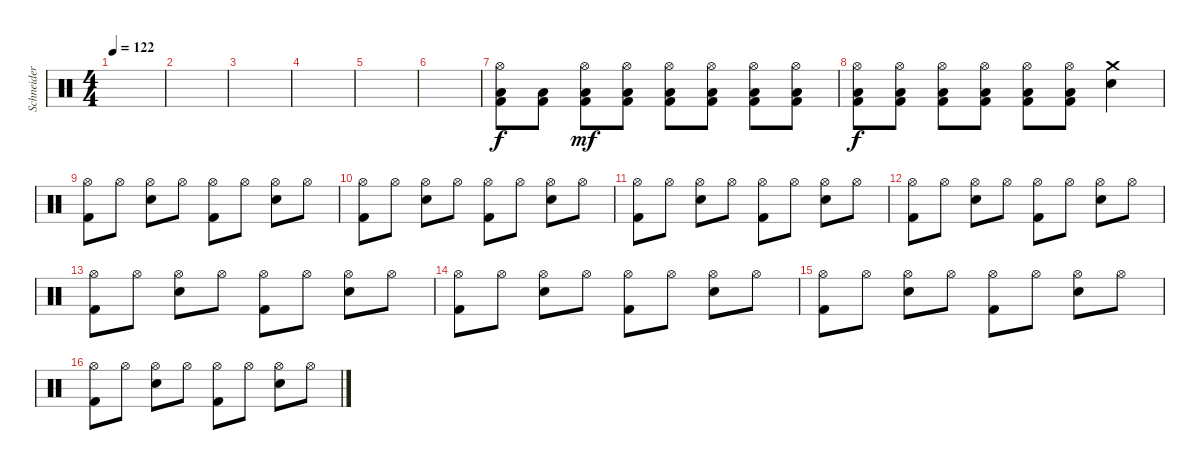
\track ("Schneider" "Schneider") {instrument percussion}
\staff {score}
\articulation defaults
\ts (4 4)
\tempo 122
\clef neutral
\ks c
|
|
|
|
|
|
("Hi-Hat (open)" "Low Floor Tom (hit)" "Kick (hit) 2").8{volume 13} ("Low Floor Tom (hit)" "Kick (hit) 2").8 ("Hi-Hat (open)" "Low Floor Tom (hit)" "Kick (hit) 2").8{dy mf} ("Hi-Hat (open)" "Low Floor Tom (hit)" "Kick (hit) 2").8 ("Hi-Hat (open)" "Low Floor Tom (hit)" "Kick (hit) 2").8 ("Hi-Hat (open)" "Low Floor Tom (hit)" "Kick (hit) 2").8 ("Hi-Hat (open)" "Low Floor Tom (hit)" "Kick (hit) 2").8 ("Hi-Hat (open)" "Low Floor Tom (hit)" "Kick (hit) 2").8 |
("Hi-Hat (open)" "Low Floor Tom (hit)" "Kick (hit) 2").8{dy f} ("Hi-Hat (open)" "Low Floor Tom (hit)" "Kick (hit) 2").8 ("Hi-Hat (open)" "Low Floor Tom (hit)" "Kick (hit) 2").8 ("Hi-Hat (open)" "Low Floor Tom (hit)" "Kick (hit) 2").8 ("Hi-Hat (open)" "Low Floor Tom (hit)" "Kick (hit) 2").8 ("Hi-Hat (open)" "Low Floor Tom (hit)" "Kick (hit) 2").8 ("Crash medium (hit)" "Snare (hit) 2").4 |
("Hi-Hat (open)" "Kick (hit) 2").8 "Hi-Hat (open)".8 ("Hi-Hat (open)" "Snare (hit) 2").8 "Hi-Hat (open)".8 ("Hi-Hat (open)" "Kick (hit) 2").8 "Hi-Hat (open)".8 ("Hi-Hat (open)" "Snare (hit) 2").8 "Hi-Hat (open)".8 |
("Hi-Hat (open)" "Kick (hit) 2").8 "Hi-Hat (open)".8 ("Hi-Hat (open)" "Snare (hit) 2").8 "Hi-Hat (open)".8 ("Hi-Hat (open)" "Kick (hit) 2").8 "Hi-Hat (open)".8 ("Hi-Hat (open)" "Snare (hit) 2").8 "Hi-Hat (open)".8 |
("Hi-Hat (open)" "Kick (hit) 2").8 "Hi-Hat (open)".8 ("Hi-Hat (open)" "Snare (hit) 2").8 "Hi-Hat (open)".8 ("Hi-Hat (open)" "Kick (hit) 2").8 "Hi-Hat (open)".8 ("Hi-Hat (open)" "Snare (hit) 2").8 "Hi-Hat (open)".8 |
("Hi-Hat (open)" "Kick (hit) 2").8 "Hi-Hat (open)".8 ("Hi-Hat (open)" "Snare (hit) 2").8 "Hi-Hat (open)".8 ("Hi-Hat (open)" "Kick (hit) 2").8 "Hi-Hat (open)".8 ("Hi-Hat (open)" "Snare (hit) 2").8 "Hi-Hat (open)".8 |
("Hi-Hat (open)" "Kick (hit) 2").8 "Hi-Hat (open)".8 ("Hi-Hat (open)" "Snare (hit) 2").8 "Hi-Hat (open)".8 ("Hi-Hat (open)" "Kick (hit) 2").8 "Hi-Hat (open)".8 ("Hi-Hat (open)" "Snare (hit) 2").8 "Hi-Hat (open)".8 |
("Hi-Hat (open)" "Kick (hit) 2").8 "Hi-Hat (open)".8 ("Hi-Hat (open)" "Snare (hit) 2").8 "Hi-Hat (open)".8 ("Hi-Hat (open)" "Kick (hit) 2").8 "Hi-Hat (open)".8 ("Hi-Hat (open)" "Snare (hit) 2").8 "Hi-Hat (open)".8 |
("Hi-Hat (open)" "Kick (hit) 2").8 "Hi-Hat (open)".8 ("Hi-Hat (open)" "Snare (hit) 2").8 "Hi-Hat (open)".8 ("Hi-Hat (open)" "Kick (hit) 2").8 "Hi-Hat (open)".8 ("Hi-Hat (open)" "Snare (hit) 2").8 "Hi-Hat (open)".8 |
("Hi-Hat (open)" "Kick (hit) 2").8 "Hi-Hat (open)".8 ("Hi-Hat (open)" "Snare (hit) 2").8 "Hi-Hat (open)".8 ("Hi-Hat (open)" "Kick (hit) 2").8 "Hi-Hat (open)".8 ("Hi-Hat (open)" "Snare (hit) 2").8 "Hi-Hat (open)".8
